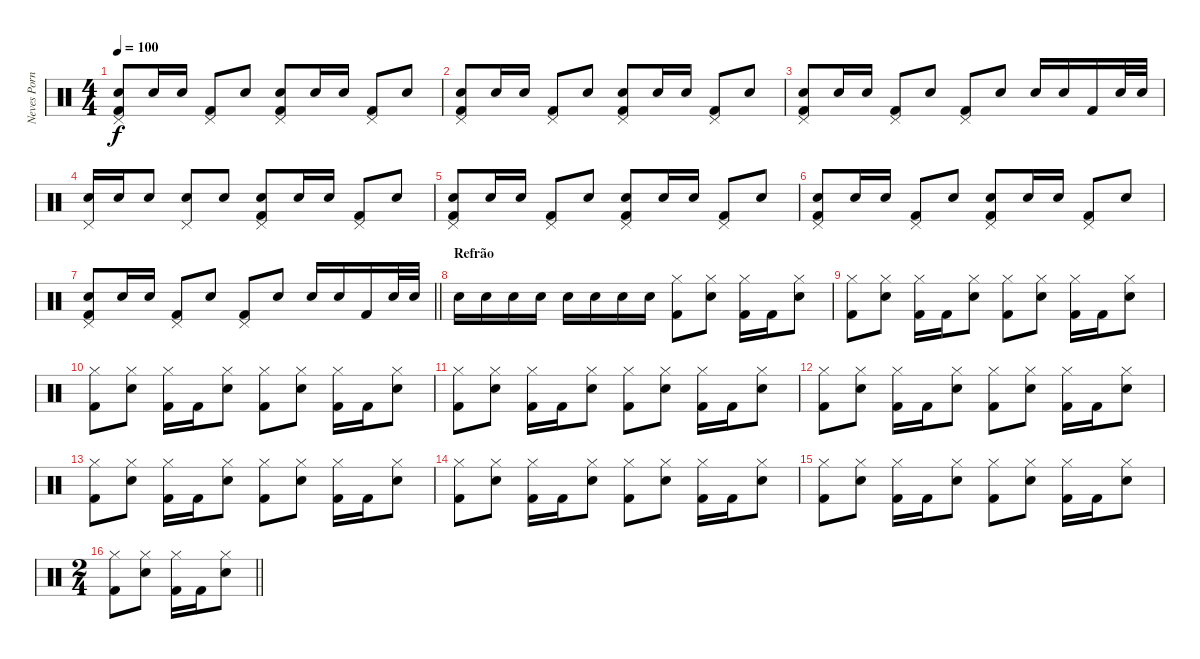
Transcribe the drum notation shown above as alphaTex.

\track ("Neves Porntoy" "Neves Porn") {instrument percussion}
\staff {score}
\articulation defaults
\ts (4 4)
\tempo 100
\clef neutral
\ks c
("Electric Snare (hit)" "Kick (hit) 2" "Pedal Hi-Hat (hit)").8{dy f} "Electric Snare (hit)".16 "Electric Snare (hit)".16 ("Kick (hit) 2" "Pedal Hi-Hat (hit)").8 "Electric Snare (hit)".8 ("Electric Snare (hit)" "Kick (hit) 2" "Pedal Hi-Hat (hit)").8 "Electric Snare (hit)".16 "Electric Snare (hit)".16 ("Kick (hit) 2" "Pedal Hi-Hat (hit)").8 "Electric Snare (hit)".8 |
("Electric Snare (hit)" "Kick (hit) 2" "Pedal Hi-Hat (hit)").8 "Electric Snare (hit)".16 "Electric Snare (hit)".16 ("Kick (hit) 2" "Pedal Hi-Hat (hit)").8 "Electric Snare (hit)".8 ("Electric Snare (hit)" "Kick (hit) 2" "Pedal Hi-Hat (hit)").8 "Electric Snare (hit)".16 "Electric Snare (hit)".16 ("Kick (hit) 2" "Pedal Hi-Hat (hit)").8 "Electric Snare (hit)".8 |
("Electric Snare (hit)" "Kick (hit) 2" "Pedal Hi-Hat (hit)").8 "Electric Snare (hit)".16 "Electric Snare (hit)".16 ("Kick (hit) 2" "Pedal Hi-Hat (hit)").8 "Electric Snare (hit)".8 ("Kick (hit) 2" "Pedal Hi-Hat (hit)").8 "Electric Snare (hit)".8 "Electric Snare (hit)".16 "Electric Snare (hit)".16 "Kick (hit) 2".16 "Electric Snare (hit)".32 "Electric Snare (hit)".32 |
("Electric Snare (hit)" "Pedal Hi-Hat (hit)").16 "Electric Snare (hit)".16 "Electric Snare (hit)".8 ("Electric Snare (hit)" "Pedal Hi-Hat (hit)").8 "Electric Snare (hit)".8 ("Electric Snare (hit)" "Kick (hit) 2" "Pedal Hi-Hat (hit)").8 "Electric Snare (hit)".16 "Electric Snare (hit)".16 ("Kick (hit) 2" "Pedal Hi-Hat (hit)").8 "Electric Snare (hit)".8 |
("Electric Snare (hit)" "Kick (hit) 2" "Pedal Hi-Hat (hit)").8 "Electric Snare (hit)".16 "Electric Snare (hit)".16 ("Kick (hit) 2" "Pedal Hi-Hat (hit)").8 "Electric Snare (hit)".8 ("Electric Snare (hit)" "Kick (hit) 2" "Pedal Hi-Hat (hit)").8 "Electric Snare (hit)".16 "Electric Snare (hit)".16 ("Kick (hit) 2" "Pedal Hi-Hat (hit)").8 "Electric Snare (hit)".8 |
("Electric Snare (hit)" "Kick (hit) 2" "Pedal Hi-Hat (hit)").8 "Electric Snare (hit)".16 "Electric Snare (hit)".16 ("Kick (hit) 2" "Pedal Hi-Hat (hit)").8 "Electric Snare (hit)".8 ("Electric Snare (hit)" "Kick (hit) 2" "Pedal Hi-Hat (hit)").8 "Electric Snare (hit)".16 "Electric Snare (hit)".16 ("Kick (hit) 2" "Pedal Hi-Hat (hit)").8 "Electric Snare (hit)".8 |
\barLineRight lightlight
("Electric Snare (hit)" "Kick (hit) 2" "Pedal Hi-Hat (hit)").8 "Electric Snare (hit)".16 "Electric Snare (hit)".16 ("Kick (hit) 2" "Pedal Hi-Hat (hit)").8 "Electric Snare (hit)".8 ("Kick (hit) 2" "Pedal Hi-Hat (hit)").8 "Electric Snare (hit)".8 "Electric Snare (hit)".16 "Electric Snare (hit)".16 "Kick (hit) 2".16 "Electric Snare (hit)".32 "Electric Snare (hit)".32 |
\section ("" "Refrão")
"Electric Snare (hit)".16 "Electric Snare (hit)".16 "Electric Snare (hit)".16 "Electric Snare (hit)".16 "Electric Snare (hit)".16 "Electric Snare (hit)".16 "Electric Snare (hit)".16 "Electric Snare (hit)".16 ("Kick (hit) 2" "Hi-Hat (closed)").8 ("Electric Snare (hit)" "Hi-Hat (closed)").8 ("Kick (hit) 2" "Hi-Hat (closed)").16 "Kick (hit) 2".16 ("Electric Snare (hit)" "Hi-Hat (closed)").8 |
("Kick (hit) 2" "Hi-Hat (closed)").8 ("Electric Snare (hit)" "Hi-Hat (closed)").8 ("Kick (hit) 2" "Hi-Hat (closed)").16 "Kick (hit) 2".16 ("Electric Snare (hit)" "Hi-Hat (closed)").8 ("Kick (hit) 2" "Hi-Hat (closed)").8 ("Electric Snare (hit)" "Hi-Hat (closed)").8 ("Kick (hit) 2" "Hi-Hat (closed)").16 "Kick (hit) 2".16 ("Electric Snare (hit)" "Hi-Hat (closed)").8 |
("Kick (hit) 2" "Hi-Hat (closed)").8 ("Electric Snare (hit)" "Hi-Hat (closed)").8 ("Kick (hit) 2" "Hi-Hat (closed)").16 "Kick (hit) 2".16 ("Electric Snare (hit)" "Hi-Hat (closed)").8 ("Kick (hit) 2" "Hi-Hat (closed)").8 ("Electric Snare (hit)" "Hi-Hat (closed)").8 ("Kick (hit) 2" "Hi-Hat (closed)").16 "Kick (hit) 2".16 ("Electric Snare (hit)" "Hi-Hat (closed)").8 |
("Kick (hit) 2" "Hi-Hat (closed)").8 ("Electric Snare (hit)" "Hi-Hat (closed)").8 ("Kick (hit) 2" "Hi-Hat (closed)").16 "Kick (hit) 2".16 ("Electric Snare (hit)" "Hi-Hat (closed)").8 ("Kick (hit) 2" "Hi-Hat (closed)").8 ("Electric Snare (hit)" "Hi-Hat (closed)").8 ("Kick (hit) 2" "Hi-Hat (closed)").16 "Kick (hit) 2".16 ("Electric Snare (hit)" "Hi-Hat (closed)").8 |
("Kick (hit) 2" "Hi-Hat (closed)").8 ("Electric Snare (hit)" "Hi-Hat (closed)").8 ("Kick (hit) 2" "Hi-Hat (closed)").16 "Kick (hit) 2".16 ("Electric Snare (hit)" "Hi-Hat (closed)").8 ("Kick (hit) 2" "Hi-Hat (closed)").8 ("Electric Snare (hit)" "Hi-Hat (closed)").8 ("Kick (hit) 2" "Hi-Hat (closed)").16 "Kick (hit) 2".16 ("Electric Snare (hit)" "Hi-Hat (closed)").8 |
("Kick (hit) 2" "Hi-Hat (closed)").8 ("Electric Snare (hit)" "Hi-Hat (closed)").8 ("Kick (hit) 2" "Hi-Hat (closed)").16 "Kick (hit) 2".16 ("Electric Snare (hit)" "Hi-Hat (closed)").8 ("Kick (hit) 2" "Hi-Hat (closed)").8 ("Electric Snare (hit)" "Hi-Hat (closed)").8 ("Kick (hit) 2" "Hi-Hat (closed)").16 "Kick (hit) 2".16 ("Electric Snare (hit)" "Hi-Hat (closed)").8 |
("Kick (hit) 2" "Hi-Hat (closed)").8 ("Electric Snare (hit)" "Hi-Hat (closed)").8 ("Kick (hit) 2" "Hi-Hat (closed)").16 "Kick (hit) 2".16 ("Electric Snare (hit)" "Hi-Hat (closed)").8 ("Kick (hit) 2" "Hi-Hat (closed)").8 ("Electric Snare (hit)" "Hi-Hat (closed)").8 ("Kick (hit) 2" "Hi-Hat (closed)").16 "Kick (hit) 2".16 ("Electric Snare (hit)" "Hi-Hat (closed)").8 |
("Kick (hit) 2" "Hi-Hat (closed)").8 ("Electric Snare (hit)" "Hi-Hat (closed)").8 ("Kick (hit) 2" "Hi-Hat (closed)").16 "Kick (hit) 2".16 ("Electric Snare (hit)" "Hi-Hat (closed)").8 ("Kick (hit) 2" "Hi-Hat (closed)").8 ("Electric Snare (hit)" "Hi-Hat (closed)").8 ("Kick (hit) 2" "Hi-Hat (closed)").16 "Kick (hit) 2".16 ("Electric Snare (hit)" "Hi-Hat (closed)").8 |
\ts (2 4)
\barLineRight lightlight
("Kick (hit) 2" "Hi-Hat (closed)").8 ("Electric Snare (hit)" "Hi-Hat (closed)").8 ("Kick (hit) 2" "Hi-Hat (closed)").16 "Kick (hit) 2".16 ("Electric Snare (hit)" "Hi-Hat (closed)").8
